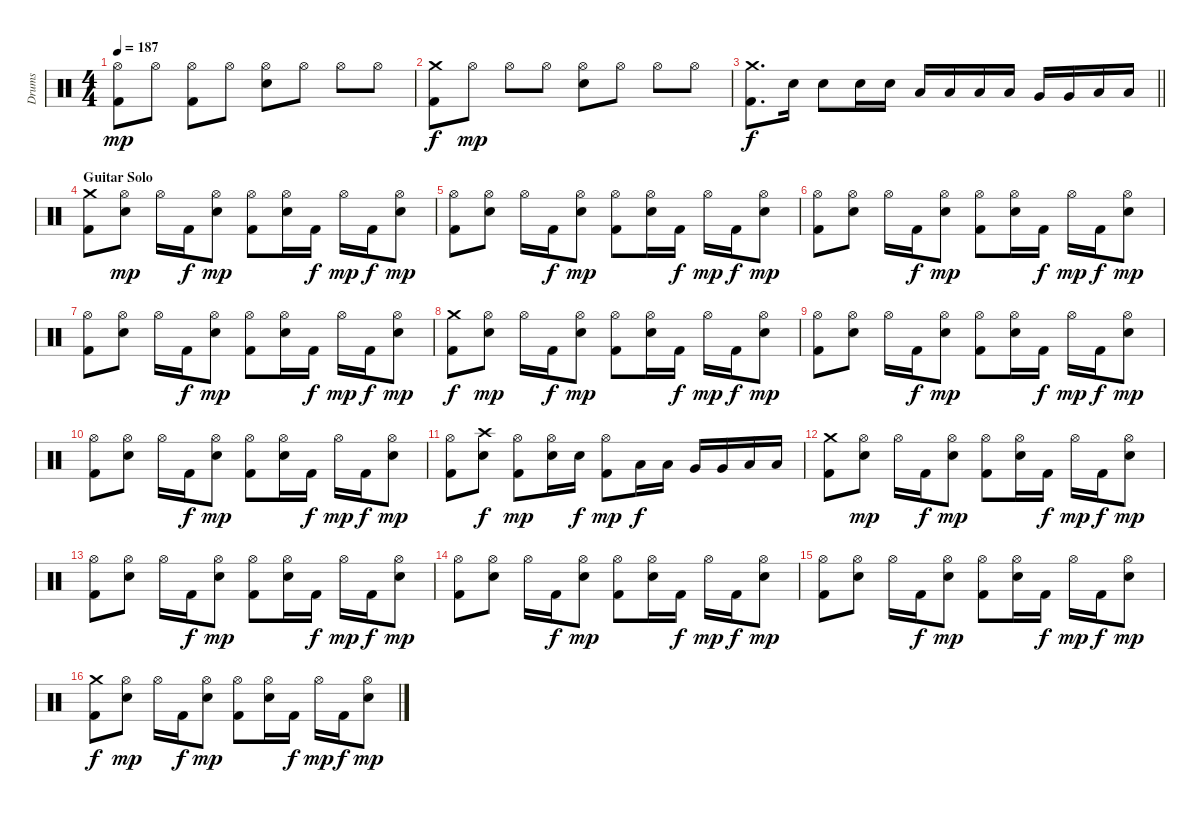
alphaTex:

\track ("Drums" "Drums") {instrument percussion}
\staff {score}
\articulation defaults
\ts (4 4)
\tempo 187
\clef neutral
\ks c
("Hi-Hat (open)" "Kick (hit) 2").8{dy mp} "Hi-Hat (open)".8 ("Hi-Hat (open)" "Kick (hit) 2").8 "Hi-Hat (open)".8 ("Hi-Hat (open)" "Snare (hit) 2").8 "Hi-Hat (open)".8 "Hi-Hat (open)".8 "Hi-Hat (open)".8 |
("Crash medium (hit)" "Kick (hit) 2").8{dy f} "Hi-Hat (open)".8{dy mp} "Hi-Hat (open)".8 "Hi-Hat (open)".8 ("Hi-Hat (open)" "Snare (hit) 2").8 "Hi-Hat (open)".8 "Hi-Hat (open)".8 "Hi-Hat (open)".8 |
\barLineRight lightlight
("Crash medium (hit)" "Kick (hit) 2").8{d dy f} "Snare (hit) 2".16 "Snare (hit) 2".8 "Snare (hit) 2".16 "Snare (hit) 2".16 "Low Tom (hit)".16 "Low Tom (hit)".16 "Low Tom (hit)".16 "Low Tom (hit)".16 "Very Low Tom (hit)".16 "Very Low Tom (hit)".16 "Low Floor Tom (hit)".16 "Low Floor Tom (hit)".16 |
\section ("" "Guitar Solo")
("Crash medium (hit)" "Kick (hit) 2").8 ("Hi-Hat (open)" "Snare (hit) 2").8{dy mp} "Hi-Hat (open)".16 "Kick (hit) 2".16{dy f} ("Hi-Hat (open)" "Snare (hit) 2").8{dy mp} ("Hi-Hat (open)" "Kick (hit) 2").8 ("Hi-Hat (open)" "Snare (hit) 2").16 "Kick (hit) 2".16{dy f} "Hi-Hat (open)".16{dy mp} "Kick (hit) 2".16{dy f} ("Hi-Hat (open)" "Snare (hit) 2").8{dy mp} |
("Hi-Hat (open)" "Kick (hit) 2").8 ("Hi-Hat (open)" "Snare (hit) 2").8 "Hi-Hat (open)".16 "Kick (hit) 2".16{dy f} ("Hi-Hat (open)" "Snare (hit) 2").8{dy mp} ("Hi-Hat (open)" "Kick (hit) 2").8 ("Hi-Hat (open)" "Snare (hit) 2").16 "Kick (hit) 2".16{dy f} "Hi-Hat (open)".16{dy mp} "Kick (hit) 2".16{dy f} ("Hi-Hat (open)" "Snare (hit) 2").8{dy mp} |
("Hi-Hat (open)" "Kick (hit) 2").8 ("Hi-Hat (open)" "Snare (hit) 2").8 "Hi-Hat (open)".16 "Kick (hit) 2".16{dy f} ("Hi-Hat (open)" "Snare (hit) 2").8{dy mp} ("Hi-Hat (open)" "Kick (hit) 2").8 ("Hi-Hat (open)" "Snare (hit) 2").16 "Kick (hit) 2".16{dy f} "Hi-Hat (open)".16{dy mp} "Kick (hit) 2".16{dy f} ("Hi-Hat (open)" "Snare (hit) 2").8{dy mp} |
("Hi-Hat (open)" "Kick (hit) 2").8 ("Hi-Hat (open)" "Snare (hit) 2").8 "Hi-Hat (open)".16 "Kick (hit) 2".16{dy f} ("Hi-Hat (open)" "Snare (hit) 2").8{dy mp} ("Hi-Hat (open)" "Kick (hit) 2").8 ("Hi-Hat (open)" "Snare (hit) 2").16 "Kick (hit) 2".16{dy f} "Hi-Hat (open)".16{dy mp} "Kick (hit) 2".16{dy f} ("Hi-Hat (open)" "Snare (hit) 2").8{dy mp} |
("Crash medium (hit)" "Kick (hit) 2").8{dy f} ("Hi-Hat (open)" "Snare (hit) 2").8{dy mp} "Hi-Hat (open)".16 "Kick (hit) 2".16{dy f} ("Hi-Hat (open)" "Snare (hit) 2").8{dy mp} ("Hi-Hat (open)" "Kick (hit) 2").8 ("Hi-Hat (open)" "Snare (hit) 2").16 "Kick (hit) 2".16{dy f} "Hi-Hat (open)".16{dy mp} "Kick (hit) 2".16{dy f} ("Hi-Hat (open)" "Snare (hit) 2").8{dy mp} |
("Hi-Hat (open)" "Kick (hit) 2").8 ("Hi-Hat (open)" "Snare (hit) 2").8 "Hi-Hat (open)".16 "Kick (hit) 2".16{dy f} ("Hi-Hat (open)" "Snare (hit) 2").8{dy mp} ("Hi-Hat (open)" "Kick (hit) 2").8 ("Hi-Hat (open)" "Snare (hit) 2").16 "Kick (hit) 2".16{dy f} "Hi-Hat (open)".16{dy mp} "Kick (hit) 2".16{dy f} ("Hi-Hat (open)" "Snare (hit) 2").8{dy mp} |
("Hi-Hat (open)" "Kick (hit) 2").8 ("Hi-Hat (open)" "Snare (hit) 2").8 "Hi-Hat (open)".16 "Kick (hit) 2".16{dy f} ("Hi-Hat (open)" "Snare (hit) 2").8{dy mp} ("Hi-Hat (open)" "Kick (hit) 2").8 ("Hi-Hat (open)" "Snare (hit) 2").16 "Kick (hit) 2".16{dy f} "Hi-Hat (open)".16{dy mp} "Kick (hit) 2".16{dy f} ("Hi-Hat (open)" "Snare (hit) 2").8{dy mp} |
("Hi-Hat (open)" "Kick (hit) 2").8 ("Crash high (hit)" "Snare (hit) 2").8{dy f} ("Hi-Hat (open)" "Kick (hit) 2").8{dy mp} ("Hi-Hat (open)" "Snare (hit) 2").16 "Snare (hit) 2".16{dy f} ("Hi-Hat (open)" "Kick (hit) 2").8{dy mp} "Low Tom (hit)".16{dy f} "Low Tom (hit)".16 "Very Low Tom (hit)".16 "Very Low Tom (hit)".16 "Low Floor Tom (hit)".16 "Low Floor Tom (hit)".16 |
("Crash medium (hit)" "Kick (hit) 2").8 ("Hi-Hat (open)" "Snare (hit) 2").8{dy mp} "Hi-Hat (open)".16 "Kick (hit) 2".16{dy f} ("Hi-Hat (open)" "Snare (hit) 2").8{dy mp} ("Hi-Hat (open)" "Kick (hit) 2").8 ("Hi-Hat (open)" "Snare (hit) 2").16 "Kick (hit) 2".16{dy f} "Hi-Hat (open)".16{dy mp} "Kick (hit) 2".16{dy f} ("Hi-Hat (open)" "Snare (hit) 2").8{dy mp} |
("Hi-Hat (open)" "Kick (hit) 2").8 ("Hi-Hat (open)" "Snare (hit) 2").8 "Hi-Hat (open)".16 "Kick (hit) 2".16{dy f} ("Hi-Hat (open)" "Snare (hit) 2").8{dy mp} ("Hi-Hat (open)" "Kick (hit) 2").8 ("Hi-Hat (open)" "Snare (hit) 2").16 "Kick (hit) 2".16{dy f} "Hi-Hat (open)".16{dy mp} "Kick (hit) 2".16{dy f} ("Hi-Hat (open)" "Snare (hit) 2").8{dy mp} |
("Hi-Hat (open)" "Kick (hit) 2").8 ("Hi-Hat (open)" "Snare (hit) 2").8 "Hi-Hat (open)".16 "Kick (hit) 2".16{dy f} ("Hi-Hat (open)" "Snare (hit) 2").8{dy mp} ("Hi-Hat (open)" "Kick (hit) 2").8 ("Hi-Hat (open)" "Snare (hit) 2").16 "Kick (hit) 2".16{dy f} "Hi-Hat (open)".16{dy mp} "Kick (hit) 2".16{dy f} ("Hi-Hat (open)" "Snare (hit) 2").8{dy mp} |
("Hi-Hat (open)" "Kick (hit) 2").8 ("Hi-Hat (open)" "Snare (hit) 2").8 "Hi-Hat (open)".16 "Kick (hit) 2".16{dy f} ("Hi-Hat (open)" "Snare (hit) 2").8{dy mp} ("Hi-Hat (open)" "Kick (hit) 2").8 ("Hi-Hat (open)" "Snare (hit) 2").16 "Kick (hit) 2".16{dy f} "Hi-Hat (open)".16{dy mp} "Kick (hit) 2".16{dy f} ("Hi-Hat (open)" "Snare (hit) 2").8{dy mp} |
("Crash medium (hit)" "Kick (hit) 2").8{dy f} ("Hi-Hat (open)" "Snare (hit) 2").8{dy mp} "Hi-Hat (open)".16 "Kick (hit) 2".16{dy f} ("Hi-Hat (open)" "Snare (hit) 2").8{dy mp} ("Hi-Hat (open)" "Kick (hit) 2").8 ("Hi-Hat (open)" "Snare (hit) 2").16 "Kick (hit) 2".16{dy f} "Hi-Hat (open)".16{dy mp} "Kick (hit) 2".16{dy f} ("Hi-Hat (open)" "Snare (hit) 2").8{dy mp}
